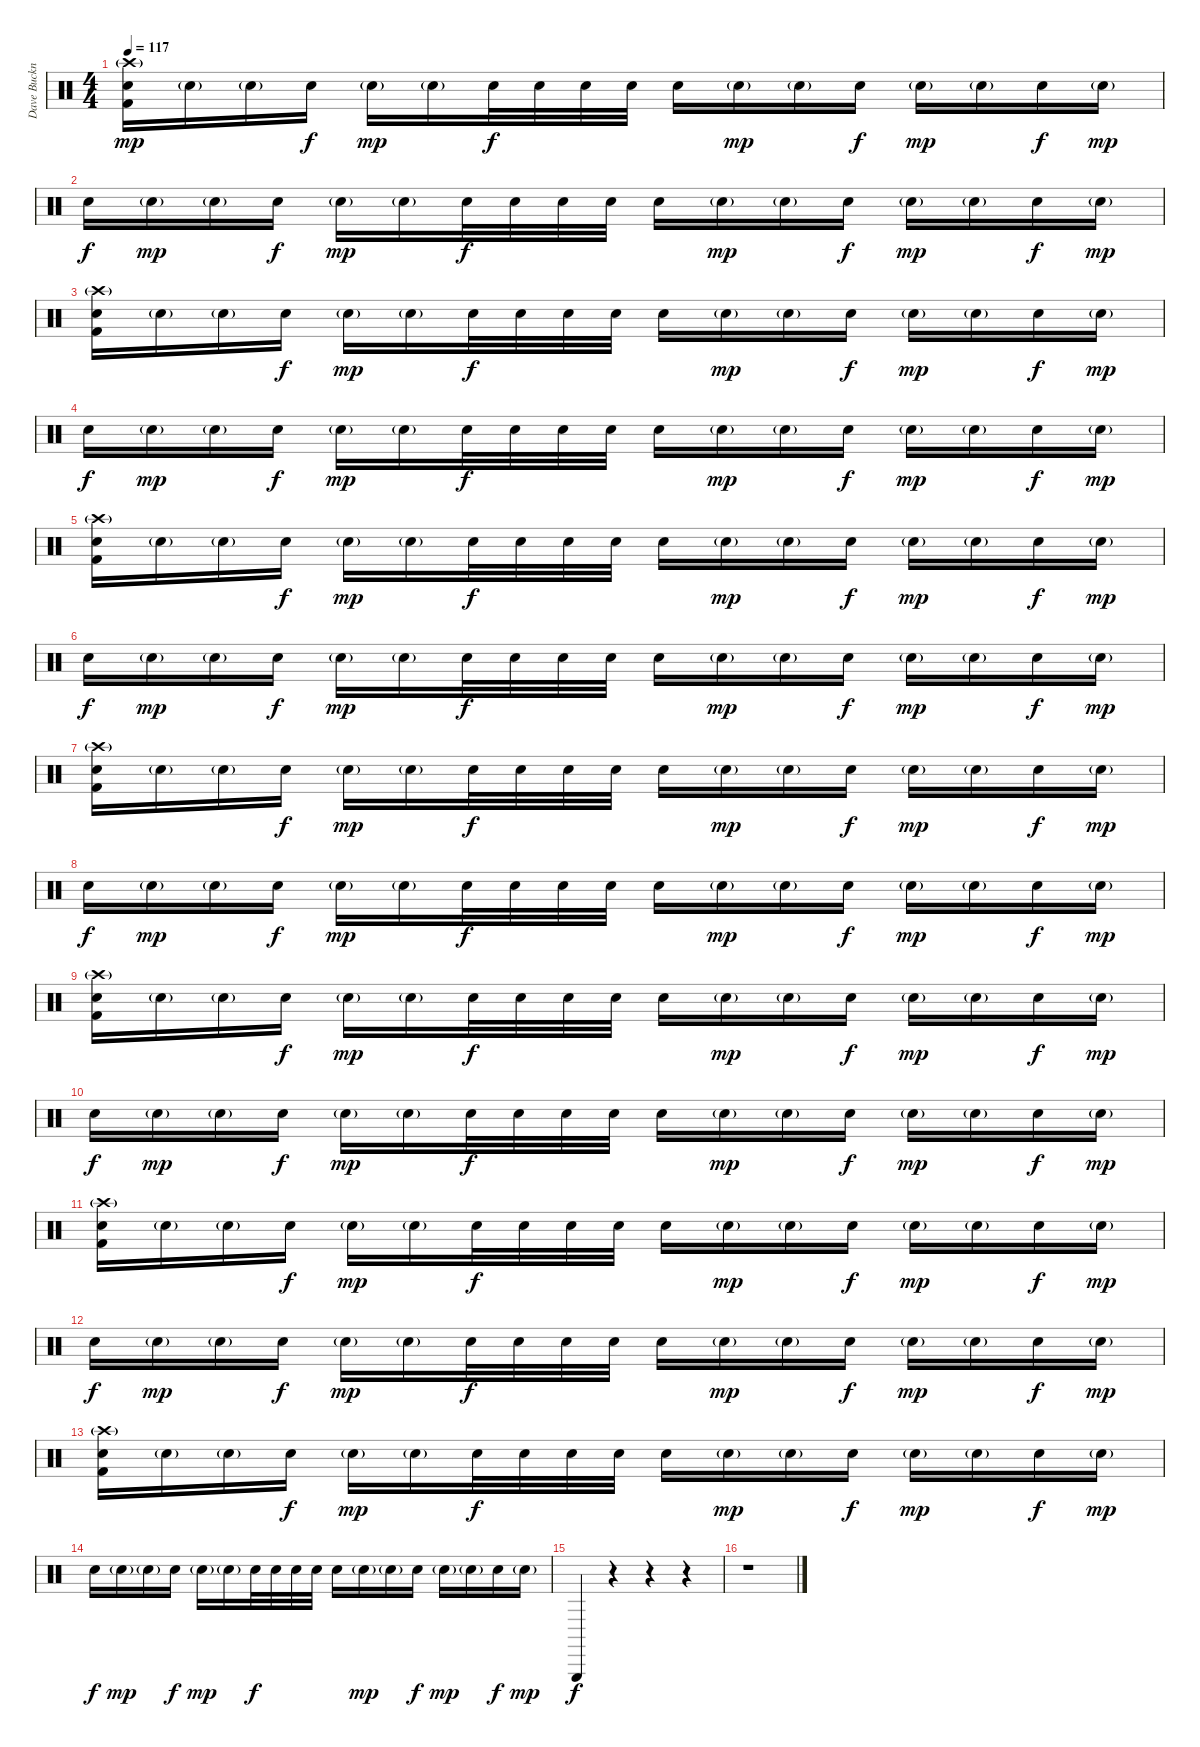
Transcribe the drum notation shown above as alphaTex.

\track ("Dave Buckner RULZ!!! (Drums)" "Dave Buckn") {instrument percussion}
\staff {score}
\articulation defaults
\ts (4 4)
\tempo 117
\clef neutral
\ks c
("Crash high (hit)"{g} "Electric Snare (hit)" "Kick (hit) 2").16{dy mp} "Electric Snare (hit)"{g}.16 "Electric Snare (hit)"{g}.16 "Electric Snare (hit)".16{dy f} "Electric Snare (hit)"{g}.16{dy mp} "Electric Snare (hit)"{g}.16 "Electric Snare (hit)".32{dy f} "Electric Snare (hit)".32 "Electric Snare (hit)".32 "Electric Snare (hit)".32 "Electric Snare (hit)".16 "Electric Snare (hit)"{g}.16{dy mp} "Electric Snare (hit)"{g}.16 "Electric Snare (hit)".16{dy f} "Electric Snare (hit)"{g}.16{dy mp} "Electric Snare (hit)"{g}.16 "Electric Snare (hit)".16{dy f} "Electric Snare (hit)"{g}.16{dy mp} |
"Electric Snare (hit)".16{dy f} "Electric Snare (hit)"{g}.16{dy mp} "Electric Snare (hit)"{g}.16 "Electric Snare (hit)".16{dy f} "Electric Snare (hit)"{g}.16{dy mp} "Electric Snare (hit)"{g}.16 "Electric Snare (hit)".32{dy f} "Electric Snare (hit)".32 "Electric Snare (hit)".32 "Electric Snare (hit)".32 "Electric Snare (hit)".16 "Electric Snare (hit)"{g}.16{dy mp} "Electric Snare (hit)"{g}.16 "Electric Snare (hit)".16{dy f} "Electric Snare (hit)"{g}.16{dy mp} "Electric Snare (hit)"{g}.16 "Electric Snare (hit)".16{dy f} "Electric Snare (hit)"{g}.16{dy mp} |
("Crash high (hit)"{g} "Electric Snare (hit)" "Kick (hit) 2").16 "Electric Snare (hit)"{g}.16 "Electric Snare (hit)"{g}.16 "Electric Snare (hit)".16{dy f} "Electric Snare (hit)"{g}.16{dy mp} "Electric Snare (hit)"{g}.16 "Electric Snare (hit)".32{dy f} "Electric Snare (hit)".32 "Electric Snare (hit)".32 "Electric Snare (hit)".32 "Electric Snare (hit)".16 "Electric Snare (hit)"{g}.16{dy mp} "Electric Snare (hit)"{g}.16 "Electric Snare (hit)".16{dy f} "Electric Snare (hit)"{g}.16{dy mp} "Electric Snare (hit)"{g}.16 "Electric Snare (hit)".16{dy f} "Electric Snare (hit)"{g}.16{dy mp} |
"Electric Snare (hit)".16{dy f} "Electric Snare (hit)"{g}.16{dy mp} "Electric Snare (hit)"{g}.16 "Electric Snare (hit)".16{dy f} "Electric Snare (hit)"{g}.16{dy mp} "Electric Snare (hit)"{g}.16 "Electric Snare (hit)".32{dy f} "Electric Snare (hit)".32 "Electric Snare (hit)".32 "Electric Snare (hit)".32 "Electric Snare (hit)".16 "Electric Snare (hit)"{g}.16{dy mp} "Electric Snare (hit)"{g}.16 "Electric Snare (hit)".16{dy f} "Electric Snare (hit)"{g}.16{dy mp} "Electric Snare (hit)"{g}.16 "Electric Snare (hit)".16{dy f} "Electric Snare (hit)"{g}.16{dy mp} |
("Crash high (hit)"{g} "Electric Snare (hit)" "Kick (hit) 2").16 "Electric Snare (hit)"{g}.16 "Electric Snare (hit)"{g}.16 "Electric Snare (hit)".16{dy f} "Electric Snare (hit)"{g}.16{dy mp} "Electric Snare (hit)"{g}.16 "Electric Snare (hit)".32{dy f} "Electric Snare (hit)".32 "Electric Snare (hit)".32 "Electric Snare (hit)".32 "Electric Snare (hit)".16 "Electric Snare (hit)"{g}.16{dy mp} "Electric Snare (hit)"{g}.16 "Electric Snare (hit)".16{dy f} "Electric Snare (hit)"{g}.16{dy mp} "Electric Snare (hit)"{g}.16 "Electric Snare (hit)".16{dy f} "Electric Snare (hit)"{g}.16{dy mp} |
"Electric Snare (hit)".16{dy f} "Electric Snare (hit)"{g}.16{dy mp} "Electric Snare (hit)"{g}.16 "Electric Snare (hit)".16{dy f} "Electric Snare (hit)"{g}.16{dy mp} "Electric Snare (hit)"{g}.16 "Electric Snare (hit)".32{dy f} "Electric Snare (hit)".32 "Electric Snare (hit)".32 "Electric Snare (hit)".32 "Electric Snare (hit)".16 "Electric Snare (hit)"{g}.16{dy mp} "Electric Snare (hit)"{g}.16 "Electric Snare (hit)".16{dy f} "Electric Snare (hit)"{g}.16{dy mp} "Electric Snare (hit)"{g}.16 "Electric Snare (hit)".16{dy f} "Electric Snare (hit)"{g}.16{dy mp} |
("Crash high (hit)"{g} "Electric Snare (hit)" "Kick (hit) 2").16 "Electric Snare (hit)"{g}.16 "Electric Snare (hit)"{g}.16 "Electric Snare (hit)".16{dy f} "Electric Snare (hit)"{g}.16{dy mp} "Electric Snare (hit)"{g}.16 "Electric Snare (hit)".32{dy f} "Electric Snare (hit)".32 "Electric Snare (hit)".32 "Electric Snare (hit)".32 "Electric Snare (hit)".16 "Electric Snare (hit)"{g}.16{dy mp} "Electric Snare (hit)"{g}.16 "Electric Snare (hit)".16{dy f} "Electric Snare (hit)"{g}.16{dy mp} "Electric Snare (hit)"{g}.16 "Electric Snare (hit)".16{dy f} "Electric Snare (hit)"{g}.16{dy mp} |
"Electric Snare (hit)".16{dy f} "Electric Snare (hit)"{g}.16{dy mp} "Electric Snare (hit)"{g}.16 "Electric Snare (hit)".16{dy f} "Electric Snare (hit)"{g}.16{dy mp} "Electric Snare (hit)"{g}.16 "Electric Snare (hit)".32{dy f} "Electric Snare (hit)".32 "Electric Snare (hit)".32 "Electric Snare (hit)".32 "Electric Snare (hit)".16 "Electric Snare (hit)"{g}.16{dy mp} "Electric Snare (hit)"{g}.16 "Electric Snare (hit)".16{dy f} "Electric Snare (hit)"{g}.16{dy mp} "Electric Snare (hit)"{g}.16 "Electric Snare (hit)".16{dy f} "Electric Snare (hit)"{g}.16{dy mp} |
("Crash high (hit)"{g} "Electric Snare (hit)" "Kick (hit) 2").16 "Electric Snare (hit)"{g}.16 "Electric Snare (hit)"{g}.16 "Electric Snare (hit)".16{dy f} "Electric Snare (hit)"{g}.16{dy mp} "Electric Snare (hit)"{g}.16 "Electric Snare (hit)".32{dy f} "Electric Snare (hit)".32 "Electric Snare (hit)".32 "Electric Snare (hit)".32 "Electric Snare (hit)".16 "Electric Snare (hit)"{g}.16{dy mp} "Electric Snare (hit)"{g}.16 "Electric Snare (hit)".16{dy f} "Electric Snare (hit)"{g}.16{dy mp} "Electric Snare (hit)"{g}.16 "Electric Snare (hit)".16{dy f} "Electric Snare (hit)"{g}.16{dy mp} |
"Electric Snare (hit)".16{dy f} "Electric Snare (hit)"{g}.16{dy mp} "Electric Snare (hit)"{g}.16 "Electric Snare (hit)".16{dy f} "Electric Snare (hit)"{g}.16{dy mp} "Electric Snare (hit)"{g}.16 "Electric Snare (hit)".32{dy f} "Electric Snare (hit)".32 "Electric Snare (hit)".32 "Electric Snare (hit)".32 "Electric Snare (hit)".16 "Electric Snare (hit)"{g}.16{dy mp} "Electric Snare (hit)"{g}.16 "Electric Snare (hit)".16{dy f} "Electric Snare (hit)"{g}.16{dy mp} "Electric Snare (hit)"{g}.16 "Electric Snare (hit)".16{dy f} "Electric Snare (hit)"{g}.16{dy mp} |
("Crash high (hit)"{g} "Electric Snare (hit)" "Kick (hit) 2").16 "Electric Snare (hit)"{g}.16 "Electric Snare (hit)"{g}.16 "Electric Snare (hit)".16{dy f} "Electric Snare (hit)"{g}.16{dy mp} "Electric Snare (hit)"{g}.16 "Electric Snare (hit)".32{dy f} "Electric Snare (hit)".32 "Electric Snare (hit)".32 "Electric Snare (hit)".32 "Electric Snare (hit)".16 "Electric Snare (hit)"{g}.16{dy mp} "Electric Snare (hit)"{g}.16 "Electric Snare (hit)".16{dy f} "Electric Snare (hit)"{g}.16{dy mp} "Electric Snare (hit)"{g}.16 "Electric Snare (hit)".16{dy f} "Electric Snare (hit)"{g}.16{dy mp} |
"Electric Snare (hit)".16{dy f} "Electric Snare (hit)"{g}.16{dy mp} "Electric Snare (hit)"{g}.16 "Electric Snare (hit)".16{dy f} "Electric Snare (hit)"{g}.16{dy mp} "Electric Snare (hit)"{g}.16 "Electric Snare (hit)".32{dy f} "Electric Snare (hit)".32 "Electric Snare (hit)".32 "Electric Snare (hit)".32 "Electric Snare (hit)".16 "Electric Snare (hit)"{g}.16{dy mp} "Electric Snare (hit)"{g}.16 "Electric Snare (hit)".16{dy f} "Electric Snare (hit)"{g}.16{dy mp} "Electric Snare (hit)"{g}.16 "Electric Snare (hit)".16{dy f} "Electric Snare (hit)"{g}.16{dy mp} |
("Crash high (hit)"{g} "Electric Snare (hit)" "Kick (hit) 2").16 "Electric Snare (hit)"{g}.16 "Electric Snare (hit)"{g}.16 "Electric Snare (hit)".16{dy f} "Electric Snare (hit)"{g}.16{dy mp} "Electric Snare (hit)"{g}.16 "Electric Snare (hit)".32{dy f} "Electric Snare (hit)".32 "Electric Snare (hit)".32 "Electric Snare (hit)".32 "Electric Snare (hit)".16 "Electric Snare (hit)"{g}.16{dy mp} "Electric Snare (hit)"{g}.16 "Electric Snare (hit)".16{dy f} "Electric Snare (hit)"{g}.16{dy mp} "Electric Snare (hit)"{g}.16 "Electric Snare (hit)".16{dy f} "Electric Snare (hit)"{g}.16{dy mp} |
"Electric Snare (hit)".16{dy f} "Electric Snare (hit)"{g}.16{dy mp} "Electric Snare (hit)"{g}.16 "Electric Snare (hit)".16{dy f} "Electric Snare (hit)"{g}.16{dy mp} "Electric Snare (hit)"{g}.16 "Electric Snare (hit)".32{dy f} "Electric Snare (hit)".32 "Electric Snare (hit)".32 "Electric Snare (hit)".32 "Electric Snare (hit)".16 "Electric Snare (hit)"{g}.16{dy mp} "Electric Snare (hit)"{g}.16 "Electric Snare (hit)".16{dy f} "Electric Snare (hit)"{g}.16{dy mp} "Electric Snare (hit)"{g}.16 "Electric Snare (hit)".16{dy f} "Electric Snare (hit)"{g}.16{dy mp} |
"Triangle (hit)".4{dy f} r.4 r.4 r.4 |
r.1
